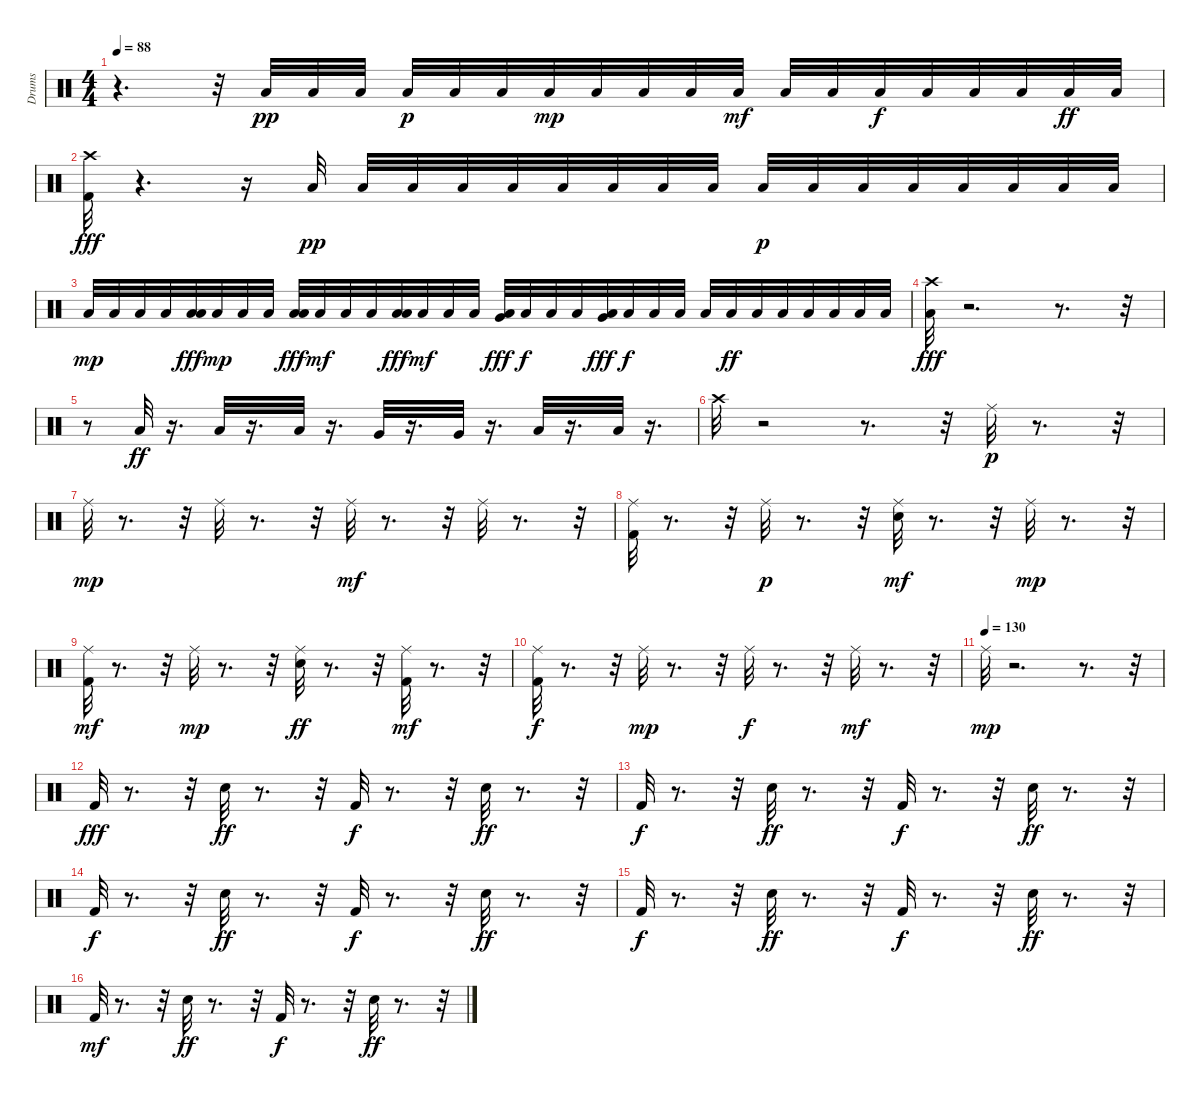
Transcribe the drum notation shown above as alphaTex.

\track ("Drums" "Drums") {instrument percussion}
\staff {score}
\articulation defaults
\ts (4 4)
\tempo 88
\clef neutral
\ks c
r.4{d dy ff} r.32 "Low Floor Tom (hit)".32{dy pp} "Low Floor Tom (hit)".32 "Low Floor Tom (hit)".32 "Low Floor Tom (hit)".32{dy p} "Low Floor Tom (hit)".32 "Low Floor Tom (hit)".32 "Low Floor Tom (hit)".32{dy mp} "Low Floor Tom (hit)".32 "Low Floor Tom (hit)".32 "Low Floor Tom (hit)".32 "Low Floor Tom (hit)".32{dy mf} "Low Floor Tom (hit)".32 "Low Floor Tom (hit)".32 "Low Floor Tom (hit)".32{dy f} "Low Floor Tom (hit)".32 "Low Floor Tom (hit)".32 "Low Floor Tom (hit)".32 "Low Floor Tom (hit)".32{dy ff} "Low Floor Tom (hit)".32 |
("Crash high (hit)" "Kick (hit) 2").32{dy fff} r.4{d} r.16 "Low Floor Tom (hit)".32{dy pp} "Low Floor Tom (hit)".32 "Low Floor Tom (hit)".32 "Low Floor Tom (hit)".32 "Low Floor Tom (hit)".32 "Low Floor Tom (hit)".32 "Low Floor Tom (hit)".32 "Low Floor Tom (hit)".32 "Low Floor Tom (hit)".32 "Low Floor Tom (hit)".32{dy p} "Low Floor Tom (hit)".32 "Low Floor Tom (hit)".32 "Low Floor Tom (hit)".32 "Low Floor Tom (hit)".32 "Low Floor Tom (hit)".32 "Low Floor Tom (hit)".32 "Low Floor Tom (hit)".32 |
"Low Floor Tom (hit)".32{dy mp} "Low Floor Tom (hit)".32 "Low Floor Tom (hit)".32 "Low Floor Tom (hit)".32 ("Low Floor Tom (hit)" "Low Tom (hit)").32{dy fff} "Low Floor Tom (hit)".32{dy mp} "Low Floor Tom (hit)".32 "Low Floor Tom (hit)".32 ("Low Floor Tom (hit)" "Low Tom (hit)").32{dy fff} "Low Floor Tom (hit)".32{dy mf} "Low Floor Tom (hit)".32 "Low Floor Tom (hit)".32 ("Low Floor Tom (hit)" "Low Tom (hit)").32{dy fff} "Low Floor Tom (hit)".32{dy mf} "Low Floor Tom (hit)".32 "Low Floor Tom (hit)".32 ("Low Floor Tom (hit)" "Very Low Tom (hit)").32{dy fff} "Low Floor Tom (hit)".32{dy f} "Low Floor Tom (hit)".32 "Low Floor Tom (hit)".32 ("Low Floor Tom (hit)" "Very Low Tom (hit)").32{dy fff} "Low Floor Tom (hit)".32{dy f} "Low Floor Tom (hit)".32 "Low Floor Tom (hit)".32 "Low Floor Tom (hit)".32 "Low Floor Tom (hit)".32{dy ff} "Low Floor Tom (hit)".32 "Low Floor Tom (hit)".32 "Low Floor Tom (hit)".32 "Low Floor Tom (hit)".32 "Low Floor Tom (hit)".32 "Low Floor Tom (hit)".32 |
("Low Floor Tom (hit)" "Crash high (hit)").32{dy fff} r.2{d} r.8{d} r.32 |
r.8 "Low Tom (hit)".32{dy ff} r.16{d} "Low Tom (hit)".32 r.16{d} "Low Tom (hit)".32 r.16{d} "Very Low Tom (hit)".32 r.16{d} "Very Low Tom (hit)".32 r.16{d} "Low Floor Tom (hit)".32 r.16{d} "Low Floor Tom (hit)".32 r.16{d} |
"Crash high (hit)".32 r.2 r.8{d} r.32 "Ride (middle)".32{dy p} r.8{d} r.32 |
"Ride (middle)".32{dy mp} r.8{d} r.32 "Ride (middle)".32 r.8{d} r.32 "Ride (middle)".32{dy mf} r.8{d} r.32 "Ride (middle)".32 r.8{d} r.32 |
("Kick (hit) 2" "Ride (middle)").32 r.8{d} r.32 "Ride (middle)".32{dy p} r.8{d} r.32 ("Snare (hit) 2" "Ride (middle)").32{dy mf} r.8{d} r.32 "Ride (middle)".32{dy mp} r.8{d} r.32 |
("Kick (hit) 2" "Ride (middle)").32{dy mf} r.8{d} r.32 "Ride (middle)".32{dy mp} r.8{d} r.32 ("Ride (middle)" "Snare (hit) 2").32{dy ff} r.8{d} r.32 ("Kick (hit) 2" "Ride (middle)").32{dy mf} r.8{d} r.32 |
("Ride (middle)" "Kick (hit) 2").32{dy f} r.8{d} r.32 "Ride (middle)".32{dy mp} r.8{d} r.32 "Ride (middle)".32{dy f} r.8{d} r.32 "Ride (middle)".32{dy mf} r.8{d} r.32 |
\tempo (130)
"Ride (middle)".32{dy mp} r.2{d} r.8{d} r.32 |
"Kick (hit) 2".32{dy fff} r.8{d} r.32 "Snare (hit) 2".32{dy ff} r.8{d} r.32 "Kick (hit) 2".32{dy f} r.8{d} r.32 "Snare (hit) 2".32{dy ff} r.8{d} r.32 |
"Kick (hit) 2".32{dy f} r.8{d} r.32 "Snare (hit) 2".32{dy ff} r.8{d} r.32 "Kick (hit) 2".32{dy f} r.8{d} r.32 "Snare (hit) 2".32{dy ff} r.8{d} r.32 |
"Kick (hit) 2".32{dy f} r.8{d} r.32 "Snare (hit) 2".32{dy ff} r.8{d} r.32 "Kick (hit) 2".32{dy f} r.8{d} r.32 "Snare (hit) 2".32{dy ff} r.8{d} r.32 |
"Kick (hit) 2".32{dy f} r.8{d} r.32 "Snare (hit) 2".32{dy ff} r.8{d} r.32 "Kick (hit) 2".32{dy f} r.8{d} r.32 "Snare (hit) 2".32{dy ff} r.8{d} r.32 |
"Kick (hit) 2".32{dy mf} r.8{d} r.32 "Snare (hit) 2".32{dy ff} r.8{d} r.32 "Kick (hit) 2".32{dy f} r.8{d} r.32 "Snare (hit) 2".32{dy ff} r.8{d} r.32
